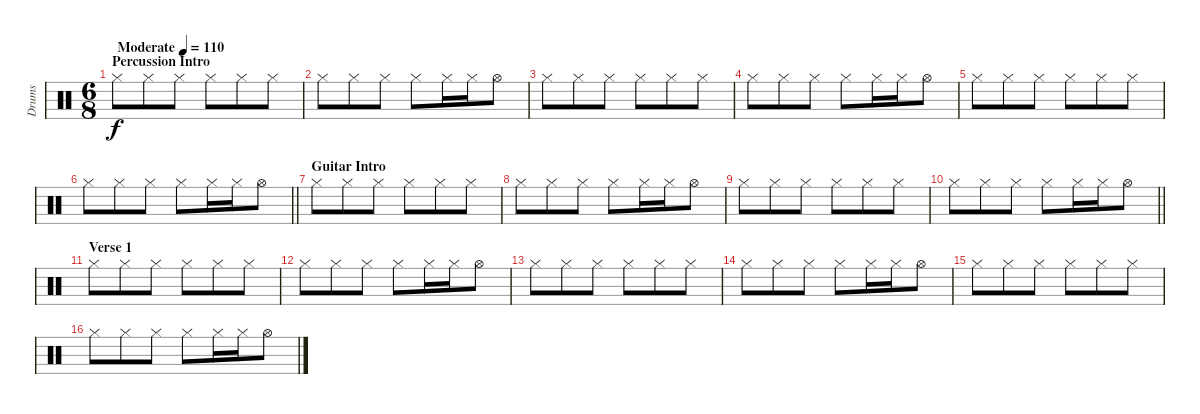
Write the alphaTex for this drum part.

\track ("Drums" "Drums") {instrument percussion}
\staff {score}
\articulation defaults
\ts (6 8)
\section ("" "Percussion Intro")
\tempo (110 "Moderate")
\clef neutral
\ks c "Hi-Hat (closed)".8{dy f} "Hi-Hat (closed)".8 "Hi-Hat (closed)".8 "Hi-Hat (closed)".8 "Hi-Hat (closed)".8 "Hi-Hat (closed)".8
|
"Hi-Hat (closed)".8 "Hi-Hat (closed)".8 "Hi-Hat (closed)".8 "Hi-Hat (closed)".8 "Hi-Hat (closed)".16 "Hi-Hat (closed)".16 "Hi-Hat (open)".8 |
"Hi-Hat (closed)".8 "Hi-Hat (closed)".8 "Hi-Hat (closed)".8 "Hi-Hat (closed)".8 "Hi-Hat (closed)".8 "Hi-Hat (closed)".8 |
"Hi-Hat (closed)".8 "Hi-Hat (closed)".8 "Hi-Hat (closed)".8 "Hi-Hat (closed)".8 "Hi-Hat (closed)".16 "Hi-Hat (closed)".16 "Hi-Hat (open)".8 |
"Hi-Hat (closed)".8 "Hi-Hat (closed)".8 "Hi-Hat (closed)".8 "Hi-Hat (closed)".8 "Hi-Hat (closed)".8 "Hi-Hat (closed)".8 |
\barLineRight lightlight "Hi-Hat (closed)".8 "Hi-Hat (closed)".8 "Hi-Hat (closed)".8 "Hi-Hat (closed)".8 "Hi-Hat (closed)".16 "Hi-Hat (closed)".16 "Hi-Hat (open)".8
|
\section ("" "Guitar Intro")
"Hi-Hat (closed)".8 "Hi-Hat (closed)".8 "Hi-Hat (closed)".8 "Hi-Hat (closed)".8 "Hi-Hat (closed)".8 "Hi-Hat (closed)".8 |
"Hi-Hat (closed)".8 "Hi-Hat (closed)".8 "Hi-Hat (closed)".8 "Hi-Hat (closed)".8 "Hi-Hat (closed)".16 "Hi-Hat (closed)".16 "Hi-Hat (open)".8 |
"Hi-Hat (closed)".8 "Hi-Hat (closed)".8 "Hi-Hat (closed)".8 "Hi-Hat (closed)".8 "Hi-Hat (closed)".8 "Hi-Hat (closed)".8 |
\barLineRight lightlight "Hi-Hat (closed)".8 "Hi-Hat (closed)".8 "Hi-Hat (closed)".8 "Hi-Hat (closed)".8 "Hi-Hat (closed)".16 "Hi-Hat (closed)".16 "Hi-Hat (open)".8
|
\section ("" "Verse 1")
"Hi-Hat (closed)".8 "Hi-Hat (closed)".8 "Hi-Hat (closed)".8 "Hi-Hat (closed)".8 "Hi-Hat (closed)".8 "Hi-Hat (closed)".8 |
"Hi-Hat (closed)".8 "Hi-Hat (closed)".8 "Hi-Hat (closed)".8 "Hi-Hat (closed)".8 "Hi-Hat (closed)".16 "Hi-Hat (closed)".16 "Hi-Hat (open)".8 |
"Hi-Hat (closed)".8 "Hi-Hat (closed)".8 "Hi-Hat (closed)".8 "Hi-Hat (closed)".8 "Hi-Hat (closed)".8 "Hi-Hat (closed)".8 |
"Hi-Hat (closed)".8 "Hi-Hat (closed)".8 "Hi-Hat (closed)".8 "Hi-Hat (closed)".8 "Hi-Hat (closed)".16 "Hi-Hat (closed)".16 "Hi-Hat (open)".8 |
"Hi-Hat (closed)".8 "Hi-Hat (closed)".8 "Hi-Hat (closed)".8 "Hi-Hat (closed)".8 "Hi-Hat (closed)".8 "Hi-Hat (closed)".8 |
"Hi-Hat (closed)".8 "Hi-Hat (closed)".8 "Hi-Hat (closed)".8 "Hi-Hat (closed)".8 "Hi-Hat (closed)".16 "Hi-Hat (closed)".16 "Hi-Hat (open)".8
